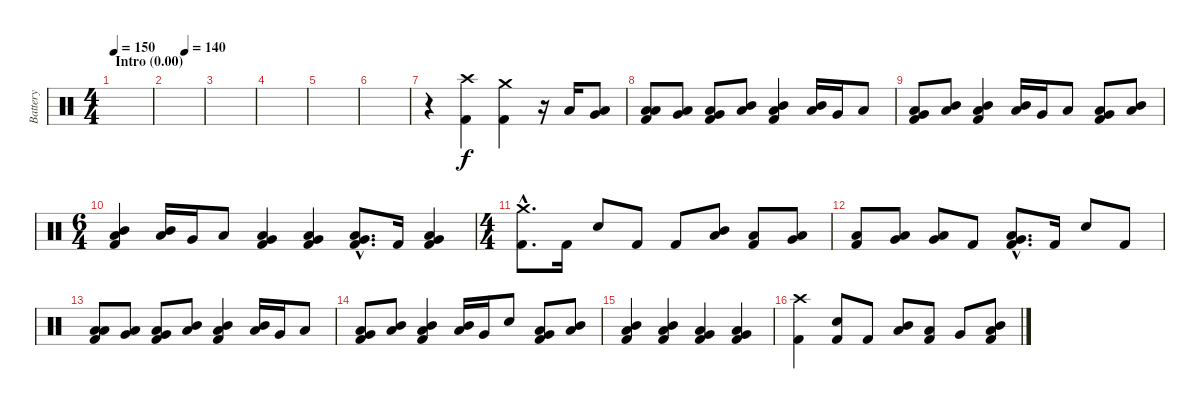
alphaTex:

\track ("Battery" "Battery") {instrument percussion}
\staff {score}
\articulation defaults
\ts (4 4)
\section ("" "Intro (0.00)")
\tempo 150
\clef neutral
\ks c
|
\tempo (140 0.5)
|
|
|
|
|
r.4 ("Crash high (hit)" "Kick (hit) 2").4 ("Crash medium (hit)" "Kick (hit) 2").4 r.16 "Low Tom (hit)".16 ("Very Low Tom (hit)" "Low Floor Tom (hit)").8 |
("Low Floor Tom (hit)" "Low Floor Tom (hit)" "Kick (hit) 2").8 ("Very Low Tom (hit)" "Low Floor Tom (hit)").8 ("Low Tom (hit)" "Very Low Tom (hit)" "Kick (hit) 2").8 ("Mid Tom (hit)" "Low Tom (hit)").8 ("Mid Tom (hit)" "Low Tom (hit)" "Kick (hit) 2").4 ("Mid Tom (hit)" "Low Tom (hit)").16 "Very Low Tom (hit)".16 "Low Floor Tom (hit)".8 |
("Low Tom (hit)" "Very Low Tom (hit)" "Kick (hit) 2").8 ("Mid Tom (hit)" "Low Tom (hit)").8 ("Mid Tom (hit)" "Low Tom (hit)" "Kick (hit) 2").4 ("Mid Tom (hit)" "Low Tom (hit)").16 "Very Low Tom (hit)".16 "Low Floor Tom (hit)".8 ("Low Tom (hit)" "Very Low Tom (hit)" "Kick (hit) 2").8 ("Mid Tom (hit)" "Low Tom (hit)").8 |
\ts (6 4)
("Mid Tom (hit)" "Low Tom (hit)" "Kick (hit) 2").4 ("Mid Tom (hit)" "Low Tom (hit)").16 "Very Low Tom (hit)".16 "Low Floor Tom (hit)".8 ("Low Tom (hit)" "Very Low Tom (hit)" "Kick (hit) 2").4 ("Low Tom (hit)" "Very Low Tom (hit)" "Kick (hit) 2").4 ("Very Low Tom (hit)"{hac} "Low Floor Tom (hit)"{hac} "Kick (hit) 2"{hac}).8{d} "Kick (hit) 2".16 ("Very Low Tom (hit)" "Low Floor Tom (hit)" "Kick (hit) 2").4 |
\ts (4 4)
("Crash medium (hit)"{hac} "Kick (hit) 2"{hac}).8{d} "Kick (hit) 2".16 "Electric Snare (hit)".8 "Kick (hit) 2".8 "Kick (hit) 2".8 ("Mid Tom (hit)" "Low Tom (hit)").8 ("Low Floor Tom (hit)" "Kick (hit) 2").8 ("Low Tom (hit)" "Very Low Tom (hit)").8 |
("Low Floor Tom (hit)" "Kick (hit) 2").8 ("Low Tom (hit)" "Very Low Tom (hit)").8 ("Low Tom (hit)" "Very Low Tom (hit)").8 "Kick (hit) 2".8 ("Very Low Tom (hit)"{hac} "Low Floor Tom (hit)"{hac} "Kick (hit) 2"{hac}).8{d} "Kick (hit) 2".16 "Electric Snare (hit)".8 "Kick (hit) 2".8 |
("Low Floor Tom (hit)" "Low Floor Tom (hit)" "Kick (hit) 2").8 ("Very Low Tom (hit)" "Low Floor Tom (hit)").8 ("Low Tom (hit)" "Very Low Tom (hit)" "Kick (hit) 2").8 ("Mid Tom (hit)" "Low Tom (hit)").8 ("Mid Tom (hit)" "Low Tom (hit)" "Kick (hit) 2").4 ("Mid Tom (hit)" "Low Tom (hit)").16 "Very Low Tom (hit)".16 "Low Floor Tom (hit)".8 |
("Low Tom (hit)" "Very Low Tom (hit)" "Kick (hit) 2").8 ("Mid Tom (hit)" "Low Tom (hit)").8 ("Mid Tom (hit)" "Low Tom (hit)" "Kick (hit) 2").4 ("Mid Tom (hit)" "Low Tom (hit)").16 "Very Low Tom (hit)".16 "Electric Snare (hit)".8 ("Low Tom (hit)" "Very Low Tom (hit)" "Kick (hit) 2").8 ("Mid Tom (hit)" "Low Tom (hit)").8 |
("Mid Tom (hit)" "Low Tom (hit)" "Kick (hit) 2").4 ("Mid Tom (hit)" "Low Tom (hit)" "Kick (hit) 2").4 ("Low Tom (hit)" "Very Low Tom (hit)" "Kick (hit) 2").4 ("Low Tom (hit)" "Very Low Tom (hit)" "Kick (hit) 2").4 |
("Crash high (hit)" "Kick (hit) 2").4 ("Electric Snare (hit)" "Kick (hit) 2").8 "Kick (hit) 2".8 ("Mid Tom (hit)" "Low Tom (hit)").8 ("Low Tom (hit)" "Kick (hit) 2").8 "Very Low Tom (hit)".8 ("Mid Tom (hit)" "Low Tom (hit)" "Kick (hit) 2").8
